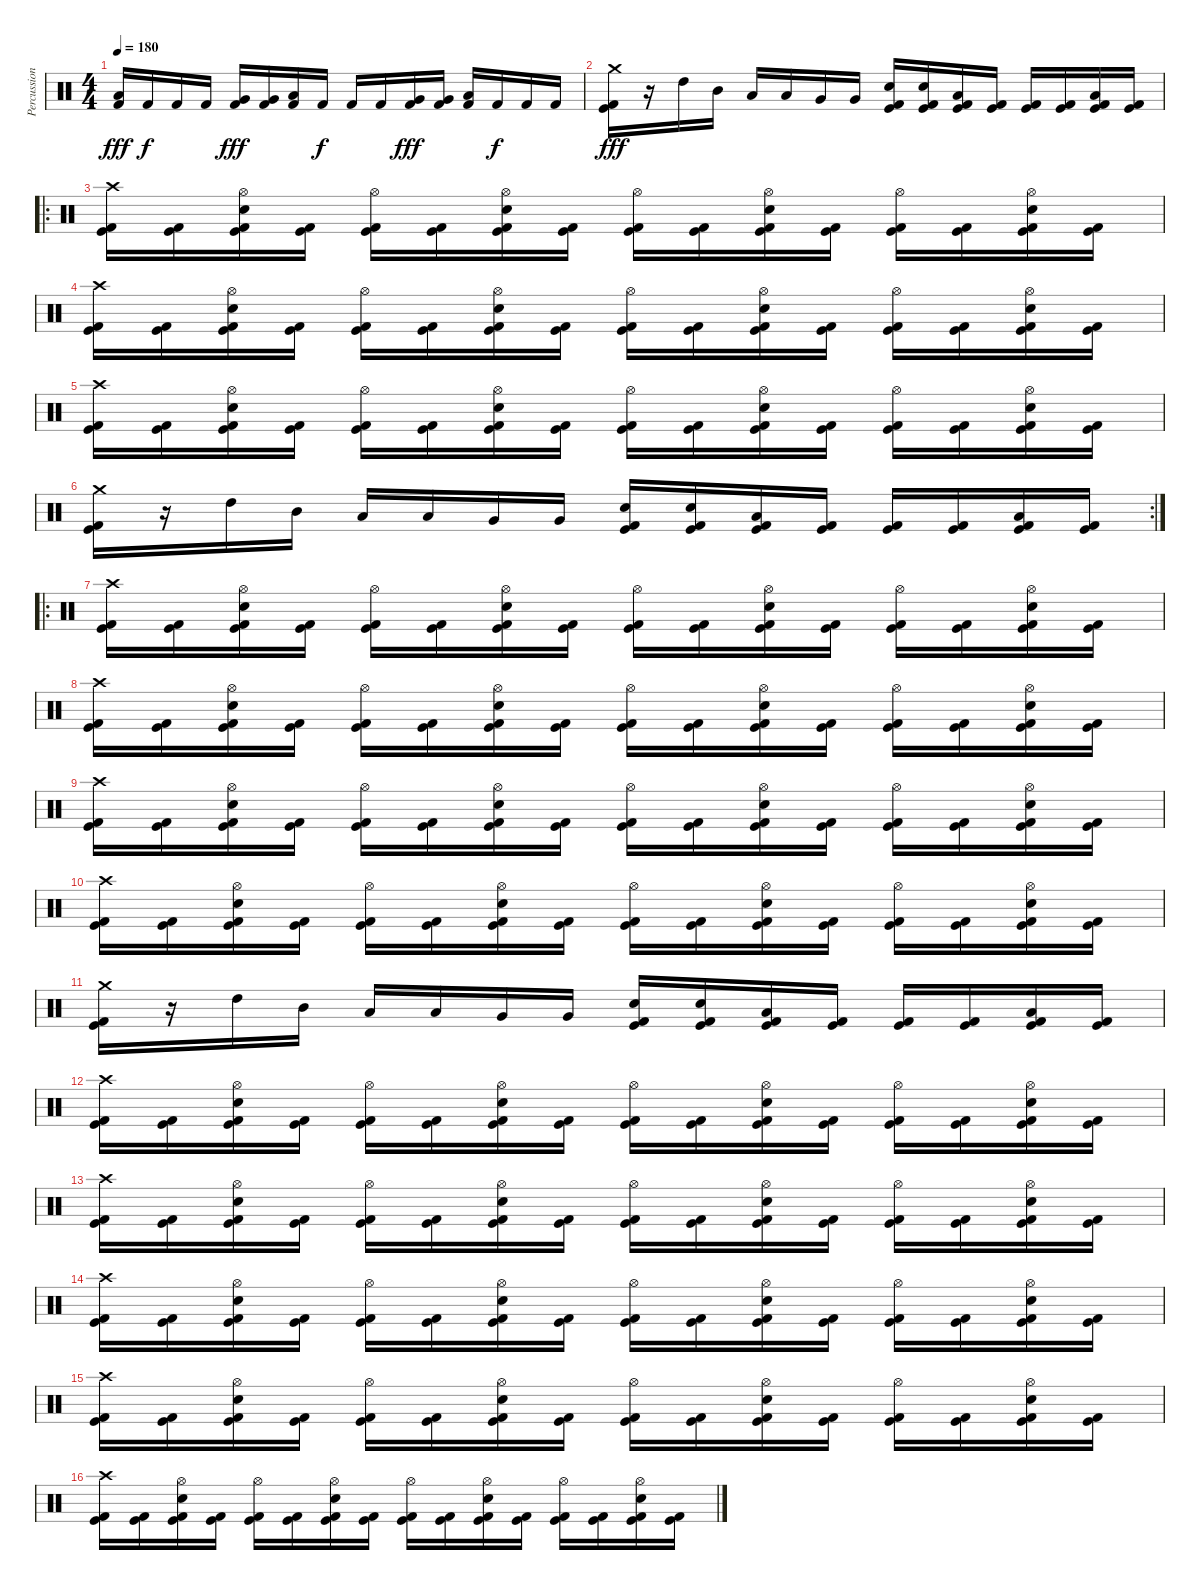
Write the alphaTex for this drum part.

\track ("Percussion" "Percussion") {instrument percussion}
\staff {score}
\articulation defaults
\ts (4 4)
\tempo 180
\clef neutral
\ks c
("Kick (hit) 2" "Low Tom (hit)").16{dy fff} "Kick (hit) 2".16{dy f} "Kick (hit) 2".16 "Kick (hit) 2".16 ("Kick (hit) 2" "Very Low Tom (hit)").16{dy fff} ("Kick (hit) 2" "Very Low Tom (hit)").16 ("Kick (hit) 2" "Low Tom (hit)").16 "Kick (hit) 2".16{dy f} "Kick (hit) 2".16 "Kick (hit) 2".16 ("Kick (hit) 2" "Very Low Tom (hit)").16{dy fff} ("Kick (hit) 2" "Very Low Tom (hit)").16 ("Kick (hit) 2" "Low Tom (hit)").16 "Kick (hit) 2".16{dy f} "Kick (hit) 2".16 "Kick (hit) 2".16 |
("Kick (hit) 2" "Kick (hit)" "Crash medium (hit)").16{dy fff} r.16 "High Tom (hit)".16 "Mid Tom (hit)".16 "Low Tom (hit)".16 "Low Tom (hit)".16 "Very Low Tom (hit)".16 "Very Low Tom (hit)".16 ("Kick (hit) 2" "Kick (hit)" "Snare (hit) 2").16 ("Kick (hit) 2" "Kick (hit)" "Snare (hit) 2").16 ("Kick (hit) 2" "Kick (hit)" "Low Tom (hit)").16 ("Kick (hit) 2" "Kick (hit)").16 ("Kick (hit) 2" "Kick (hit)").16 ("Kick (hit) 2" "Kick (hit)").16 ("Kick (hit) 2" "Kick (hit)" "Low Floor Tom (hit)").16 ("Kick (hit) 2" "Kick (hit)").16 |
\ro
("Kick (hit) 2" "Kick (hit)" "Crash high (hit)").16 ("Kick (hit) 2" "Kick (hit)").16 ("Kick (hit) 2" "Kick (hit)" "Snare (hit) 2" "Hi-Hat (open)").16 ("Kick (hit) 2" "Kick (hit)").16 ("Kick (hit) 2" "Kick (hit)" "Hi-Hat (open)").16 ("Kick (hit) 2" "Kick (hit)").16 ("Kick (hit) 2" "Kick (hit)" "Snare (hit) 2" "Hi-Hat (open)").16 ("Kick (hit) 2" "Kick (hit)").16 ("Kick (hit) 2" "Kick (hit)" "Hi-Hat (open)").16 ("Kick (hit) 2" "Kick (hit)").16 ("Kick (hit) 2" "Kick (hit)" "Snare (hit) 2" "Hi-Hat (open)").16 ("Kick (hit) 2" "Kick (hit)").16 ("Kick (hit) 2" "Kick (hit)" "Hi-Hat (open)").16 ("Kick (hit) 2" "Kick (hit)").16 ("Kick (hit) 2" "Kick (hit)" "Snare (hit) 2" "Hi-Hat (open)").16 ("Kick (hit) 2" "Kick (hit)").16 |
("Kick (hit) 2" "Kick (hit)" "Crash high (hit)").16 ("Kick (hit) 2" "Kick (hit)").16 ("Kick (hit) 2" "Kick (hit)" "Snare (hit) 2" "Hi-Hat (open)").16 ("Kick (hit) 2" "Kick (hit)").16 ("Kick (hit) 2" "Kick (hit)" "Hi-Hat (open)").16 ("Kick (hit) 2" "Kick (hit)").16 ("Kick (hit) 2" "Kick (hit)" "Snare (hit) 2" "Hi-Hat (open)").16 ("Kick (hit) 2" "Kick (hit)").16 ("Kick (hit) 2" "Kick (hit)" "Hi-Hat (open)").16 ("Kick (hit) 2" "Kick (hit)").16 ("Kick (hit) 2" "Kick (hit)" "Snare (hit) 2" "Hi-Hat (open)").16 ("Kick (hit) 2" "Kick (hit)").16 ("Kick (hit) 2" "Kick (hit)" "Hi-Hat (open)").16 ("Kick (hit) 2" "Kick (hit)").16 ("Kick (hit) 2" "Kick (hit)" "Snare (hit) 2" "Hi-Hat (open)").16 ("Kick (hit) 2" "Kick (hit)").16 |
("Kick (hit) 2" "Kick (hit)" "Crash high (hit)").16 ("Kick (hit) 2" "Kick (hit)").16 ("Kick (hit) 2" "Kick (hit)" "Snare (hit) 2" "Hi-Hat (open)").16 ("Kick (hit) 2" "Kick (hit)").16 ("Kick (hit) 2" "Kick (hit)" "Hi-Hat (open)").16 ("Kick (hit) 2" "Kick (hit)").16 ("Kick (hit) 2" "Kick (hit)" "Snare (hit) 2" "Hi-Hat (open)").16 ("Kick (hit) 2" "Kick (hit)").16 ("Kick (hit) 2" "Kick (hit)" "Hi-Hat (open)").16 ("Kick (hit) 2" "Kick (hit)").16 ("Kick (hit) 2" "Kick (hit)" "Snare (hit) 2" "Hi-Hat (open)").16 ("Kick (hit) 2" "Kick (hit)").16 ("Kick (hit) 2" "Kick (hit)" "Hi-Hat (open)").16 ("Kick (hit) 2" "Kick (hit)").16 ("Kick (hit) 2" "Kick (hit)" "Snare (hit) 2" "Hi-Hat (open)").16 ("Kick (hit) 2" "Kick (hit)").16 |
\rc 2
("Kick (hit) 2" "Kick (hit)" "Crash medium (hit)").16 r.16 "High Tom (hit)".16 "Mid Tom (hit)".16 "Low Tom (hit)".16 "Low Tom (hit)".16 "Very Low Tom (hit)".16 "Very Low Tom (hit)".16 ("Kick (hit) 2" "Kick (hit)" "Snare (hit) 2").16 ("Kick (hit) 2" "Kick (hit)" "Snare (hit) 2").16 ("Kick (hit) 2" "Kick (hit)" "Low Tom (hit)").16 ("Kick (hit) 2" "Kick (hit)").16 ("Kick (hit) 2" "Kick (hit)").16 ("Kick (hit) 2" "Kick (hit)").16 ("Kick (hit) 2" "Kick (hit)" "Low Floor Tom (hit)").16 ("Kick (hit) 2" "Kick (hit)").16 |
\ro
("Kick (hit) 2" "Kick (hit)" "Crash high (hit)").16 ("Kick (hit) 2" "Kick (hit)").16 ("Kick (hit) 2" "Kick (hit)" "Snare (hit) 2" "Hi-Hat (open)").16 ("Kick (hit) 2" "Kick (hit)").16 ("Kick (hit) 2" "Kick (hit)" "Hi-Hat (open)").16 ("Kick (hit) 2" "Kick (hit)").16 ("Kick (hit) 2" "Kick (hit)" "Snare (hit) 2" "Hi-Hat (open)").16 ("Kick (hit) 2" "Kick (hit)").16 ("Kick (hit) 2" "Kick (hit)" "Hi-Hat (open)").16 ("Kick (hit) 2" "Kick (hit)").16 ("Kick (hit) 2" "Kick (hit)" "Snare (hit) 2" "Hi-Hat (open)").16 ("Kick (hit) 2" "Kick (hit)").16 ("Kick (hit) 2" "Kick (hit)" "Hi-Hat (open)").16 ("Kick (hit) 2" "Kick (hit)").16 ("Kick (hit) 2" "Kick (hit)" "Snare (hit) 2" "Hi-Hat (open)").16 ("Kick (hit) 2" "Kick (hit)").16 |
("Kick (hit) 2" "Kick (hit)" "Crash high (hit)").16 ("Kick (hit) 2" "Kick (hit)").16 ("Kick (hit) 2" "Kick (hit)" "Snare (hit) 2" "Hi-Hat (open)").16 ("Kick (hit) 2" "Kick (hit)").16 ("Kick (hit) 2" "Kick (hit)" "Hi-Hat (open)").16 ("Kick (hit) 2" "Kick (hit)").16 ("Kick (hit) 2" "Kick (hit)" "Snare (hit) 2" "Hi-Hat (open)").16 ("Kick (hit) 2" "Kick (hit)").16 ("Kick (hit) 2" "Kick (hit)" "Hi-Hat (open)").16 ("Kick (hit) 2" "Kick (hit)").16 ("Kick (hit) 2" "Kick (hit)" "Snare (hit) 2" "Hi-Hat (open)").16 ("Kick (hit) 2" "Kick (hit)").16 ("Kick (hit) 2" "Kick (hit)" "Hi-Hat (open)").16 ("Kick (hit) 2" "Kick (hit)").16 ("Kick (hit) 2" "Kick (hit)" "Snare (hit) 2" "Hi-Hat (open)").16 ("Kick (hit) 2" "Kick (hit)").16 |
("Kick (hit) 2" "Kick (hit)" "Crash high (hit)").16 ("Kick (hit) 2" "Kick (hit)").16 ("Kick (hit) 2" "Kick (hit)" "Snare (hit) 2" "Hi-Hat (open)").16 ("Kick (hit) 2" "Kick (hit)").16 ("Kick (hit) 2" "Kick (hit)" "Hi-Hat (open)").16 ("Kick (hit) 2" "Kick (hit)").16 ("Kick (hit) 2" "Kick (hit)" "Snare (hit) 2" "Hi-Hat (open)").16 ("Kick (hit) 2" "Kick (hit)").16 ("Kick (hit) 2" "Kick (hit)" "Hi-Hat (open)").16 ("Kick (hit) 2" "Kick (hit)").16 ("Kick (hit) 2" "Kick (hit)" "Snare (hit) 2" "Hi-Hat (open)").16 ("Kick (hit) 2" "Kick (hit)").16 ("Kick (hit) 2" "Kick (hit)" "Hi-Hat (open)").16 ("Kick (hit) 2" "Kick (hit)").16 ("Kick (hit) 2" "Kick (hit)" "Snare (hit) 2" "Hi-Hat (open)").16 ("Kick (hit) 2" "Kick (hit)").16 |
("Kick (hit) 2" "Kick (hit)" "Crash high (hit)").16 ("Kick (hit) 2" "Kick (hit)").16 ("Kick (hit) 2" "Kick (hit)" "Snare (hit) 2" "Hi-Hat (open)").16 ("Kick (hit) 2" "Kick (hit)").16 ("Kick (hit) 2" "Kick (hit)" "Hi-Hat (open)").16 ("Kick (hit) 2" "Kick (hit)").16 ("Kick (hit) 2" "Kick (hit)" "Snare (hit) 2" "Hi-Hat (open)").16 ("Kick (hit) 2" "Kick (hit)").16 ("Kick (hit) 2" "Kick (hit)" "Hi-Hat (open)").16 ("Kick (hit) 2" "Kick (hit)").16 ("Kick (hit) 2" "Kick (hit)" "Snare (hit) 2" "Hi-Hat (open)").16 ("Kick (hit) 2" "Kick (hit)").16 ("Kick (hit) 2" "Kick (hit)" "Hi-Hat (open)").16 ("Kick (hit) 2" "Kick (hit)").16 ("Kick (hit) 2" "Kick (hit)" "Snare (hit) 2" "Hi-Hat (open)").16 ("Kick (hit) 2" "Kick (hit)").16 |
("Kick (hit) 2" "Kick (hit)" "Crash medium (hit)").16 r.16 "High Tom (hit)".16 "Mid Tom (hit)".16 "Low Tom (hit)".16 "Low Tom (hit)".16 "Very Low Tom (hit)".16 "Very Low Tom (hit)".16 ("Kick (hit) 2" "Kick (hit)" "Snare (hit) 2").16 ("Kick (hit) 2" "Kick (hit)" "Snare (hit) 2").16 ("Kick (hit) 2" "Kick (hit)" "Low Tom (hit)").16 ("Kick (hit) 2" "Kick (hit)").16 ("Kick (hit) 2" "Kick (hit)").16 ("Kick (hit) 2" "Kick (hit)").16 ("Kick (hit) 2" "Kick (hit)" "Low Floor Tom (hit)").16 ("Kick (hit) 2" "Kick (hit)").16 |
("Kick (hit) 2" "Kick (hit)" "Crash high (hit)").16 ("Kick (hit) 2" "Kick (hit)").16 ("Kick (hit) 2" "Kick (hit)" "Snare (hit) 2" "Hi-Hat (open)").16 ("Kick (hit) 2" "Kick (hit)").16 ("Kick (hit) 2" "Kick (hit)" "Hi-Hat (open)").16 ("Kick (hit) 2" "Kick (hit)").16 ("Kick (hit) 2" "Kick (hit)" "Snare (hit) 2" "Hi-Hat (open)").16 ("Kick (hit) 2" "Kick (hit)").16 ("Kick (hit) 2" "Kick (hit)" "Hi-Hat (open)").16 ("Kick (hit) 2" "Kick (hit)").16 ("Kick (hit) 2" "Kick (hit)" "Snare (hit) 2" "Hi-Hat (open)").16 ("Kick (hit) 2" "Kick (hit)").16 ("Kick (hit) 2" "Kick (hit)" "Hi-Hat (open)").16 ("Kick (hit) 2" "Kick (hit)").16 ("Kick (hit) 2" "Kick (hit)" "Snare (hit) 2" "Hi-Hat (open)").16 ("Kick (hit) 2" "Kick (hit)").16 |
("Kick (hit) 2" "Kick (hit)" "Crash high (hit)").16 ("Kick (hit) 2" "Kick (hit)").16 ("Kick (hit) 2" "Kick (hit)" "Snare (hit) 2" "Hi-Hat (open)").16 ("Kick (hit) 2" "Kick (hit)").16 ("Kick (hit) 2" "Kick (hit)" "Hi-Hat (open)").16 ("Kick (hit) 2" "Kick (hit)").16 ("Kick (hit) 2" "Kick (hit)" "Snare (hit) 2" "Hi-Hat (open)").16 ("Kick (hit) 2" "Kick (hit)").16 ("Kick (hit) 2" "Kick (hit)" "Hi-Hat (open)").16 ("Kick (hit) 2" "Kick (hit)").16 ("Kick (hit) 2" "Kick (hit)" "Snare (hit) 2" "Hi-Hat (open)").16 ("Kick (hit) 2" "Kick (hit)").16 ("Kick (hit) 2" "Kick (hit)" "Hi-Hat (open)").16 ("Kick (hit) 2" "Kick (hit)").16 ("Kick (hit) 2" "Kick (hit)" "Snare (hit) 2" "Hi-Hat (open)").16 ("Kick (hit) 2" "Kick (hit)").16 |
("Kick (hit) 2" "Kick (hit)" "Crash high (hit)").16 ("Kick (hit) 2" "Kick (hit)").16 ("Kick (hit) 2" "Kick (hit)" "Snare (hit) 2" "Hi-Hat (open)").16 ("Kick (hit) 2" "Kick (hit)").16 ("Kick (hit) 2" "Kick (hit)" "Hi-Hat (open)").16 ("Kick (hit) 2" "Kick (hit)").16 ("Kick (hit) 2" "Kick (hit)" "Snare (hit) 2" "Hi-Hat (open)").16 ("Kick (hit) 2" "Kick (hit)").16 ("Kick (hit) 2" "Kick (hit)" "Hi-Hat (open)").16 ("Kick (hit) 2" "Kick (hit)").16 ("Kick (hit) 2" "Kick (hit)" "Snare (hit) 2" "Hi-Hat (open)").16 ("Kick (hit) 2" "Kick (hit)").16 ("Kick (hit) 2" "Kick (hit)" "Hi-Hat (open)").16 ("Kick (hit) 2" "Kick (hit)").16 ("Kick (hit) 2" "Kick (hit)" "Snare (hit) 2" "Hi-Hat (open)").16 ("Kick (hit) 2" "Kick (hit)").16 |
("Kick (hit) 2" "Kick (hit)" "Crash high (hit)").16 ("Kick (hit) 2" "Kick (hit)").16 ("Kick (hit) 2" "Kick (hit)" "Snare (hit) 2" "Hi-Hat (open)").16 ("Kick (hit) 2" "Kick (hit)").16 ("Kick (hit) 2" "Kick (hit)" "Hi-Hat (open)").16 ("Kick (hit) 2" "Kick (hit)").16 ("Kick (hit) 2" "Kick (hit)" "Snare (hit) 2" "Hi-Hat (open)").16 ("Kick (hit) 2" "Kick (hit)").16 ("Kick (hit) 2" "Kick (hit)" "Hi-Hat (open)").16 ("Kick (hit) 2" "Kick (hit)").16 ("Kick (hit) 2" "Kick (hit)" "Snare (hit) 2" "Hi-Hat (open)").16 ("Kick (hit) 2" "Kick (hit)").16 ("Kick (hit) 2" "Kick (hit)" "Hi-Hat (open)").16 ("Kick (hit) 2" "Kick (hit)").16 ("Kick (hit) 2" "Kick (hit)" "Snare (hit) 2" "Hi-Hat (open)").16 ("Kick (hit) 2" "Kick (hit)").16 |
("Kick (hit) 2" "Kick (hit)" "Crash high (hit)").16 ("Kick (hit) 2" "Kick (hit)").16 ("Kick (hit) 2" "Kick (hit)" "Snare (hit) 2" "Hi-Hat (open)").16 ("Kick (hit) 2" "Kick (hit)").16 ("Kick (hit) 2" "Kick (hit)" "Hi-Hat (open)").16 ("Kick (hit) 2" "Kick (hit)").16 ("Kick (hit) 2" "Kick (hit)" "Snare (hit) 2" "Hi-Hat (open)").16 ("Kick (hit) 2" "Kick (hit)").16 ("Kick (hit) 2" "Kick (hit)" "Hi-Hat (open)").16 ("Kick (hit) 2" "Kick (hit)").16 ("Kick (hit) 2" "Kick (hit)" "Snare (hit) 2" "Hi-Hat (open)").16 ("Kick (hit) 2" "Kick (hit)").16 ("Kick (hit) 2" "Kick (hit)" "Hi-Hat (open)").16 ("Kick (hit) 2" "Kick (hit)").16 ("Kick (hit) 2" "Kick (hit)" "Snare (hit) 2" "Hi-Hat (open)").16 ("Kick (hit) 2" "Kick (hit)").16
